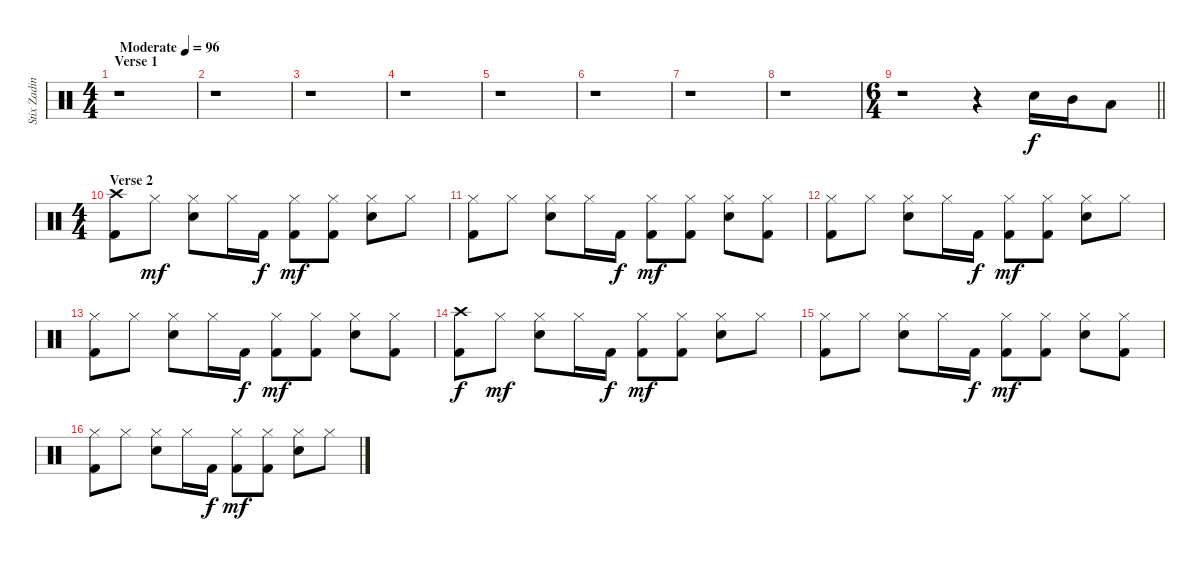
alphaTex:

\track ("Stix Zadinia" "Stix Zadin") {instrument percussion}
\staff {score}
\articulation defaults
\ts (4 4)
\section ("" "Verse 1")
\tempo (96 "Moderate")
\clef neutral
\ks c
r.1{dy f} |
r.1 |
r.1 |
r.1 |
r.1 |
r.1 |
r.1 |
r.1 |
\ts (6 4)
\barLineRight lightlight
r.1 r.4 "Electric Snare (hit)".16 "Mid Tom (hit)".16 "Low Tom (hit)".8 |
\ts (4 4)
\section ("" "Verse 2")
("Crash high (hit)" "Kick (hit) 2").8 "Hi-Hat (closed)".8{dy mf} ("Hi-Hat (closed)" "Electric Snare (hit)").8 "Hi-Hat (closed)".16 "Kick (hit) 2".16{dy f} ("Hi-Hat (closed)" "Kick (hit) 2").8{dy mf} ("Hi-Hat (closed)" "Kick (hit) 2").8 ("Hi-Hat (closed)" "Electric Snare (hit)").8 "Hi-Hat (closed)".8 |
("Hi-Hat (closed)" "Kick (hit) 2").8 "Hi-Hat (closed)".8 ("Hi-Hat (closed)" "Electric Snare (hit)").8 "Hi-Hat (closed)".16 "Kick (hit) 2".16{dy f} ("Hi-Hat (closed)" "Kick (hit) 2").8{dy mf} ("Hi-Hat (closed)" "Kick (hit) 2").8 ("Hi-Hat (closed)" "Electric Snare (hit)").8 ("Hi-Hat (closed)" "Kick (hit) 2").8 |
("Hi-Hat (closed)" "Kick (hit) 2").8 "Hi-Hat (closed)".8 ("Hi-Hat (closed)" "Electric Snare (hit)").8 "Hi-Hat (closed)".16 "Kick (hit) 2".16{dy f} ("Hi-Hat (closed)" "Kick (hit) 2").8{dy mf} ("Hi-Hat (closed)" "Kick (hit) 2").8 ("Hi-Hat (closed)" "Electric Snare (hit)").8 "Hi-Hat (closed)".8 |
("Hi-Hat (closed)" "Kick (hit) 2").8 "Hi-Hat (closed)".8 ("Hi-Hat (closed)" "Electric Snare (hit)").8 "Hi-Hat (closed)".16 "Kick (hit) 2".16{dy f} ("Hi-Hat (closed)" "Kick (hit) 2").8{dy mf} ("Hi-Hat (closed)" "Kick (hit) 2").8 ("Hi-Hat (closed)" "Electric Snare (hit)").8 ("Hi-Hat (closed)" "Kick (hit) 2").8 |
("Crash high (hit)" "Kick (hit) 2").8{dy f} "Hi-Hat (closed)".8{dy mf} ("Hi-Hat (closed)" "Electric Snare (hit)").8 "Hi-Hat (closed)".16 "Kick (hit) 2".16{dy f} ("Hi-Hat (closed)" "Kick (hit) 2").8{dy mf} ("Hi-Hat (closed)" "Kick (hit) 2").8 ("Hi-Hat (closed)" "Electric Snare (hit)").8 "Hi-Hat (closed)".8 |
("Hi-Hat (closed)" "Kick (hit) 2").8 "Hi-Hat (closed)".8 ("Hi-Hat (closed)" "Electric Snare (hit)").8 "Hi-Hat (closed)".16 "Kick (hit) 2".16{dy f} ("Hi-Hat (closed)" "Kick (hit) 2").8{dy mf} ("Hi-Hat (closed)" "Kick (hit) 2").8 ("Hi-Hat (closed)" "Electric Snare (hit)").8 ("Hi-Hat (closed)" "Kick (hit) 2").8 |
("Hi-Hat (closed)" "Kick (hit) 2").8 "Hi-Hat (closed)".8 ("Hi-Hat (closed)" "Electric Snare (hit)").8 "Hi-Hat (closed)".16 "Kick (hit) 2".16{dy f} ("Hi-Hat (closed)" "Kick (hit) 2").8{dy mf} ("Hi-Hat (closed)" "Kick (hit) 2").8 ("Hi-Hat (closed)" "Electric Snare (hit)").8 "Hi-Hat (closed)".8
